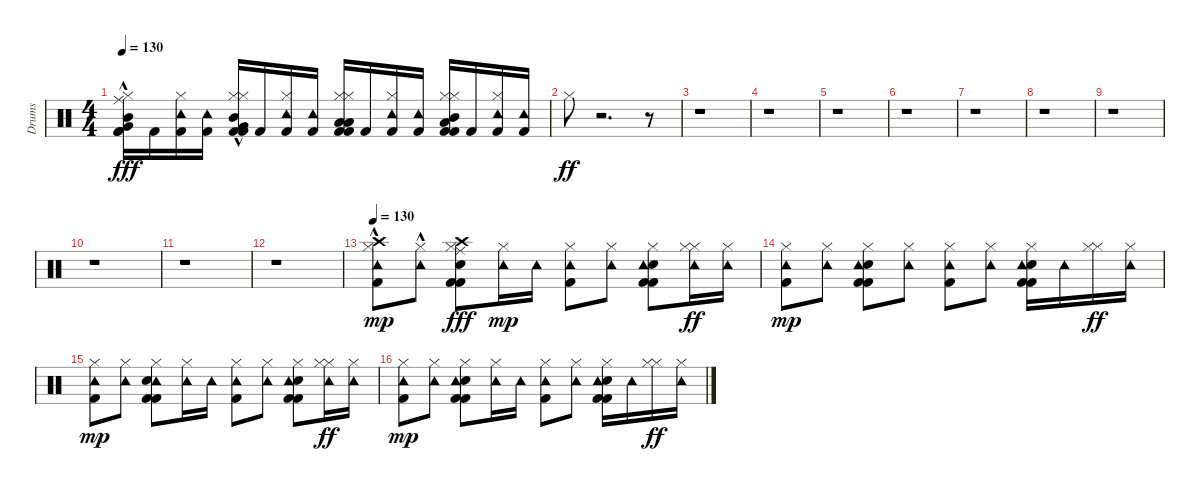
\track ("Drums" "Drums") {instrument percussion}
\staff {score}
\articulation defaults
\ts (4 4)
\tempo 130
\tempo 120
\tempo 130
\clef neutral
\ks c
("Kick (hit) 2" "Kick (hit) 2" "Hi-Hat (closed)" "Mid Tom (hit)"{hac} "Very Low Tom (hit)" "Ride (middle)"{hac}).16{dy fff} "Kick (hit) 2".16 ("Kick (hit) 2" "Hi-Hat (closed)" "Tambourine (hit)").16 ("Kick (hit) 2" "Tambourine (hit)").16 ("Kick (hit) 2" "Kick (hit) 2" "Hi-Hat (closed)" "Hi-Hat (closed)" "Very Low Tom (hit)" "Mid Tom (hit)"{hac}).16 "Kick (hit) 2".16 ("Kick (hit) 2" "Hi-Hat (closed)" "Tambourine (hit)").16 ("Kick (hit) 2" "Tambourine (hit)").16 ("Kick (hit) 2" "Kick (hit) 2" "Hi-Hat (closed)" "Hi-Hat (closed)" "Low Tom (hit)" "Low Floor Tom (hit)").16 "Kick (hit) 2".16 ("Kick (hit) 2" "Hi-Hat (closed)" "Tambourine (hit)").16 ("Kick (hit) 2" "Tambourine (hit)").16 ("Kick (hit) 2" "Kick (hit) 2" "Hi-Hat (closed)" "Hi-Hat (closed)" "Low Floor Tom (hit)" "Mid Tom (hit)").16 "Kick (hit) 2".16 ("Kick (hit) 2" "Hi-Hat (closed)" "Tambourine (hit)").16 ("Kick (hit) 2" "Tambourine (hit)").16 |
"Hi-Hat (closed)".8{dy ff} r.2{d} r.8 |
r.1 |
r.1 |
r.1 |
r.1 |
r.1 |
r.1 |
r.1 |
r.1 |
r.1 |
r.1 |
\tempo 130
("Kick (hit) 2" "Hi-Hat (closed)" "Crash high (hit)"{hac} "Tambourine (hit)").8{dy mp} ("Hi-Hat (closed)" "Tambourine (hit)"{hac}).8 ("Kick (hit) 2" "Kick (hit) 2" "Snare (hit) 2" "Hi-Hat (closed)" "Ride (middle)" "Crash high (hit)").8{dy fff} ("Hi-Hat (closed)" "Tambourine (hit)").16{dy mp} "Tambourine (hit)".16 ("Kick (hit) 2" "Hi-Hat (closed)" "Tambourine (hit)").8 ("Hi-Hat (closed)" "Tambourine (hit)").8 ("Kick (hit) 2" "Snare (hit) 2" "Kick (hit) 2" "Hi-Hat (closed)" "Tambourine (hit)").8 ("Hi-Hat (closed)" "Tambourine (hit)" "Hi-Hat (closed)").16{dy ff} ("Tambourine (hit)" "Hi-Hat (closed)").16 |
("Kick (hit) 2" "Hi-Hat (closed)" "Tambourine (hit)").8{dy mp} ("Hi-Hat (closed)" "Tambourine (hit)").8 ("Kick (hit) 2" "Snare (hit) 2" "Kick (hit) 2" "Hi-Hat (closed)" "Tambourine (hit)").8 ("Hi-Hat (closed)" "Tambourine (hit)").8 ("Kick (hit) 2" "Hi-Hat (closed)" "Tambourine (hit)").8 ("Hi-Hat (closed)" "Tambourine (hit)").8 ("Kick (hit) 2" "Kick (hit) 2" "Snare (hit) 2" "Hi-Hat (closed)" "Tambourine (hit)").16 "Tambourine (hit)".16 ("Hi-Hat (closed)" "Hi-Hat (closed)").16{dy ff} ("Tambourine (hit)" "Hi-Hat (closed)").16 |
("Kick (hit) 2" "Hi-Hat (closed)" "Tambourine (hit)").8{dy mp} ("Hi-Hat (closed)" "Tambourine (hit)").8 ("Tambourine (hit)" "Kick (hit) 2" "Kick (hit) 2" "Snare (hit) 2" "Hi-Hat (closed)").8 ("Hi-Hat (closed)" "Tambourine (hit)").16 "Tambourine (hit)".16 ("Kick (hit) 2" "Hi-Hat (closed)" "Tambourine (hit)").8 ("Hi-Hat (closed)" "Tambourine (hit)").8 ("Kick (hit) 2" "Kick (hit) 2" "Snare (hit) 2" "Hi-Hat (closed)" "Tambourine (hit)").8 ("Hi-Hat (closed)" "Tambourine (hit)" "Hi-Hat (closed)").16{dy ff} ("Tambourine (hit)" "Hi-Hat (closed)").16 |
("Kick (hit) 2" "Hi-Hat (closed)" "Tambourine (hit)").8{dy mp} ("Hi-Hat (closed)" "Tambourine (hit)").8 ("Kick (hit) 2" "Snare (hit) 2" "Kick (hit) 2" "Hi-Hat (closed)" "Tambourine (hit)").8 ("Hi-Hat (closed)" "Tambourine (hit)").16 "Tambourine (hit)".16 ("Kick (hit) 2" "Hi-Hat (closed)" "Tambourine (hit)").8 ("Hi-Hat (closed)" "Tambourine (hit)").8 ("Kick (hit) 2" "Snare (hit) 2" "Kick (hit) 2" "Hi-Hat (closed)" "Tambourine (hit)").16 "Tambourine (hit)".16 ("Hi-Hat (closed)" "Hi-Hat (closed)").16{dy ff} ("Tambourine (hit)" "Hi-Hat (closed)").16
